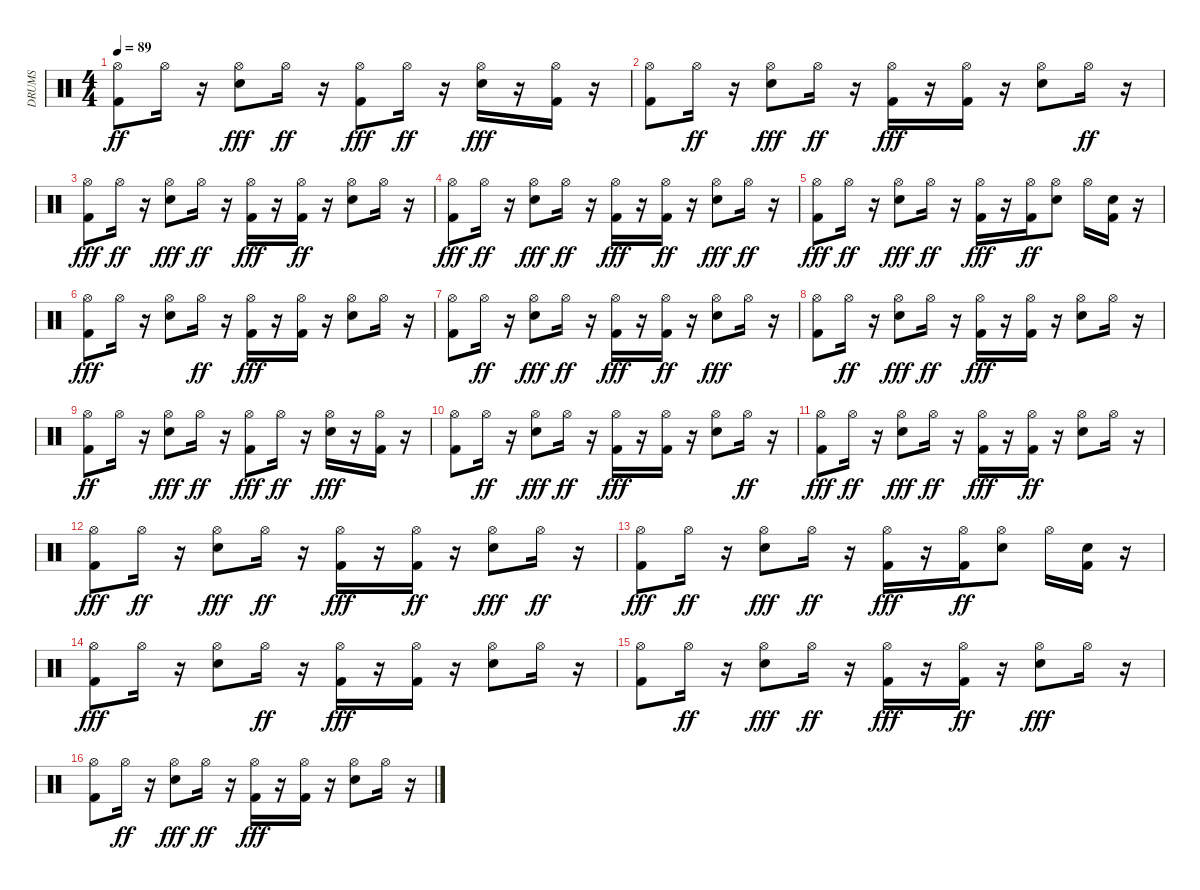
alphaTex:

\track ("DRUMS" "DRUMS") {instrument percussion}
\staff {score}
\articulation defaults
\ts (4 4)
\tempo 89
\clef neutral
\ks c
("Hi-Hat (open)" "Kick (hit) 2").8{dy ff} "Hi-Hat (open)".16 r.16 ("Electric Snare (hit)" "Hi-Hat (open)").8{dy fff} "Hi-Hat (open)".16{dy ff} r.16 ("Hi-Hat (open)" "Kick (hit) 2").8{dy fff} "Hi-Hat (open)".16{dy ff} r.16 ("Electric Snare (hit)" "Hi-Hat (open)").16{dy fff} r.16 ("Hi-Hat (open)" "Kick (hit) 2").16 r.16 |
("Hi-Hat (open)" "Kick (hit) 2").8 "Hi-Hat (open)".16{dy ff} r.16 ("Hi-Hat (open)" "Electric Snare (hit)").8{dy fff} "Hi-Hat (open)".16{dy ff} r.16 ("Hi-Hat (open)" "Kick (hit) 2").16{dy fff} r.16 ("Hi-Hat (open)" "Kick (hit) 2").16 r.16 ("Hi-Hat (open)" "Electric Snare (hit)").8 "Hi-Hat (open)".16{dy ff} r.16 |
("Hi-Hat (open)" "Kick (hit) 2").8{dy fff} "Hi-Hat (open)".16{dy ff} r.16 ("Electric Snare (hit)" "Hi-Hat (open)").8{dy fff} "Hi-Hat (open)".16{dy ff} r.16 ("Hi-Hat (open)" "Kick (hit) 2").16{dy fff} r.16 ("Hi-Hat (open)" "Kick (hit) 2").16{dy ff} r.16 ("Electric Snare (hit)" "Hi-Hat (open)").8 "Hi-Hat (open)".16 r.16 |
("Hi-Hat (open)" "Kick (hit) 2").8{dy fff} "Hi-Hat (open)".16{dy ff} r.16 ("Electric Snare (hit)" "Hi-Hat (open)").8{dy fff} "Hi-Hat (open)".16{dy ff} r.16 ("Hi-Hat (open)" "Kick (hit) 2").16{dy fff} r.16 ("Hi-Hat (open)" "Kick (hit) 2").16{dy ff} r.16 ("Electric Snare (hit)" "Hi-Hat (open)").8{dy fff} "Hi-Hat (open)".16{dy ff} r.16 |
("Hi-Hat (open)" "Kick (hit) 2").8{dy fff} "Hi-Hat (open)".16{dy ff} r.16 ("Electric Snare (hit)" "Hi-Hat (open)").8{dy fff} "Hi-Hat (open)".16{dy ff} r.16 ("Hi-Hat (open)" "Kick (hit) 2").16{dy fff} r.16 ("Kick (hit) 2" "Hi-Hat (open)").16{dy ff} ("Electric Snare (hit)" "Hi-Hat (open)").8 "Hi-Hat (open)".16 ("Kick (hit) 2" "Snare (hit) 2").16 r.16 |
("Hi-Hat (open)" "Kick (hit) 2").8{dy fff} "Hi-Hat (open)".16 r.16 ("Electric Snare (hit)" "Hi-Hat (open)").8 "Hi-Hat (open)".16{dy ff} r.16 ("Hi-Hat (open)" "Kick (hit) 2").16{dy fff} r.16 ("Kick (hit) 2" "Hi-Hat (open)").16 r.16 ("Hi-Hat (open)" "Electric Snare (hit)").8 "Hi-Hat (open)".16 r.16 |
("Hi-Hat (open)" "Kick (hit) 2").8 "Hi-Hat (open)".16{dy ff} r.16 ("Hi-Hat (open)" "Electric Snare (hit)").8{dy fff} "Hi-Hat (open)".16{dy ff} r.16 ("Hi-Hat (open)" "Kick (hit) 2").16{dy fff} r.16 ("Kick (hit) 2" "Hi-Hat (open)").16{dy ff} r.16 ("Electric Snare (hit)" "Hi-Hat (open)").8{dy fff} "Hi-Hat (open)".16 r.16 |
("Hi-Hat (open)" "Kick (hit) 2").8 "Hi-Hat (open)".16{dy ff} r.16 ("Hi-Hat (open)" "Electric Snare (hit)").8{dy fff} "Hi-Hat (open)".16{dy ff} r.16 ("Hi-Hat (open)" "Kick (hit) 2").16{dy fff} r.16 ("Kick (hit) 2" "Hi-Hat (open)").16 r.16 ("Hi-Hat (open)" "Electric Snare (hit)").8 "Hi-Hat (open)".16 r.16 |
("Hi-Hat (open)" "Kick (hit) 2").8{dy ff} "Hi-Hat (open)".16 r.16 ("Electric Snare (hit)" "Hi-Hat (open)").8{dy fff} "Hi-Hat (open)".16{dy ff} r.16 ("Hi-Hat (open)" "Kick (hit) 2").8{dy fff} "Hi-Hat (open)".16{dy ff} r.16 ("Electric Snare (hit)" "Hi-Hat (open)").16{dy fff} r.16 ("Hi-Hat (open)" "Kick (hit) 2").16 r.16 |
("Hi-Hat (open)" "Kick (hit) 2").8 "Hi-Hat (open)".16{dy ff} r.16 ("Hi-Hat (open)" "Electric Snare (hit)").8{dy fff} "Hi-Hat (open)".16{dy ff} r.16 ("Hi-Hat (open)" "Kick (hit) 2").16{dy fff} r.16 ("Hi-Hat (open)" "Kick (hit) 2").16 r.16 ("Hi-Hat (open)" "Electric Snare (hit)").8 "Hi-Hat (open)".16{dy ff} r.16 |
("Hi-Hat (open)" "Kick (hit) 2").8{dy fff} "Hi-Hat (open)".16{dy ff} r.16 ("Electric Snare (hit)" "Hi-Hat (open)").8{dy fff} "Hi-Hat (open)".16{dy ff} r.16 ("Hi-Hat (open)" "Kick (hit) 2").16{dy fff} r.16 ("Hi-Hat (open)" "Kick (hit) 2").16{dy ff} r.16 ("Electric Snare (hit)" "Hi-Hat (open)").8 "Hi-Hat (open)".16 r.16 |
("Hi-Hat (open)" "Kick (hit) 2").8{dy fff} "Hi-Hat (open)".16{dy ff} r.16 ("Electric Snare (hit)" "Hi-Hat (open)").8{dy fff} "Hi-Hat (open)".16{dy ff} r.16 ("Hi-Hat (open)" "Kick (hit) 2").16{dy fff} r.16 ("Hi-Hat (open)" "Kick (hit) 2").16{dy ff} r.16 ("Electric Snare (hit)" "Hi-Hat (open)").8{dy fff} "Hi-Hat (open)".16{dy ff} r.16 |
("Hi-Hat (open)" "Kick (hit) 2").8{dy fff} "Hi-Hat (open)".16{dy ff} r.16 ("Electric Snare (hit)" "Hi-Hat (open)").8{dy fff} "Hi-Hat (open)".16{dy ff} r.16 ("Hi-Hat (open)" "Kick (hit) 2").16{dy fff} r.16 ("Kick (hit) 2" "Hi-Hat (open)").16{dy ff} ("Electric Snare (hit)" "Hi-Hat (open)").8 "Hi-Hat (open)".16 ("Kick (hit) 2" "Snare (hit) 2").16 r.16 |
("Hi-Hat (open)" "Kick (hit) 2").8{dy fff} "Hi-Hat (open)".16 r.16 ("Electric Snare (hit)" "Hi-Hat (open)").8 "Hi-Hat (open)".16{dy ff} r.16 ("Hi-Hat (open)" "Kick (hit) 2").16{dy fff} r.16 ("Kick (hit) 2" "Hi-Hat (open)").16 r.16 ("Hi-Hat (open)" "Electric Snare (hit)").8 "Hi-Hat (open)".16 r.16 |
("Hi-Hat (open)" "Kick (hit) 2").8 "Hi-Hat (open)".16{dy ff} r.16 ("Hi-Hat (open)" "Electric Snare (hit)").8{dy fff} "Hi-Hat (open)".16{dy ff} r.16 ("Hi-Hat (open)" "Kick (hit) 2").16{dy fff} r.16 ("Kick (hit) 2" "Hi-Hat (open)").16{dy ff} r.16 ("Electric Snare (hit)" "Hi-Hat (open)").8{dy fff} "Hi-Hat (open)".16 r.16 |
("Hi-Hat (open)" "Kick (hit) 2").8 "Hi-Hat (open)".16{dy ff} r.16 ("Hi-Hat (open)" "Electric Snare (hit)").8{dy fff} "Hi-Hat (open)".16{dy ff} r.16 ("Hi-Hat (open)" "Kick (hit) 2").16{dy fff} r.16 ("Kick (hit) 2" "Hi-Hat (open)").16 r.16 ("Hi-Hat (open)" "Electric Snare (hit)").8 "Hi-Hat (open)".16 r.16
